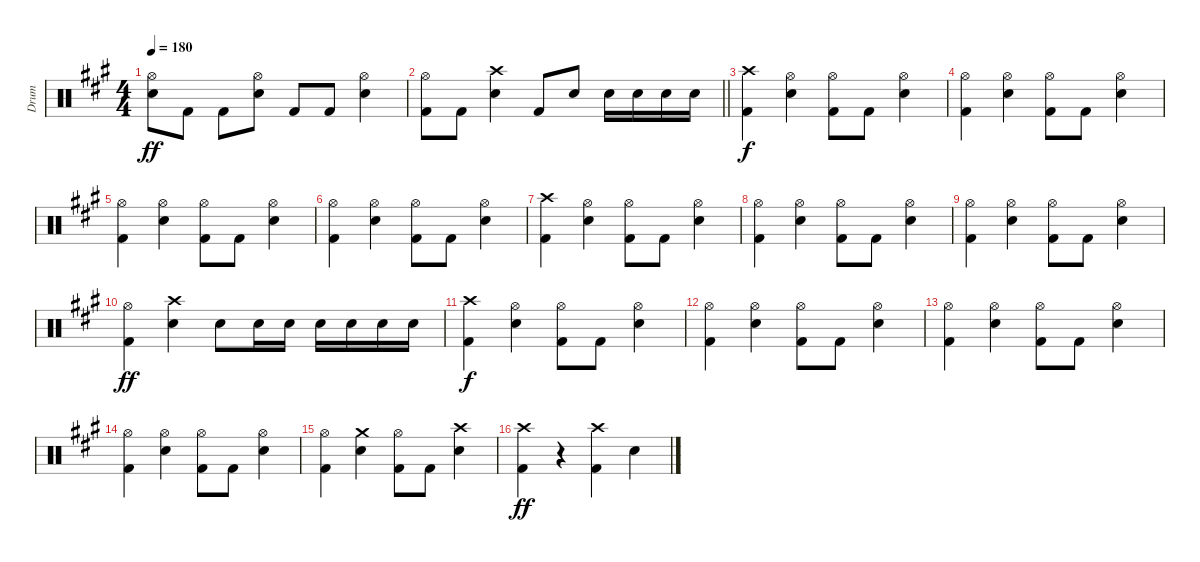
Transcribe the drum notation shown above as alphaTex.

\track ("Drum" "Drum") {instrument percussion}
\staff {score}
\articulation defaults
\ts (4 4)
\tempo 180
\clef neutral
\ks a
("Hi-Hat (open)" "Snare (hit) 2").8{dy ff} "Kick (hit) 2".8 "Kick (hit) 2".8 ("Hi-Hat (open)" "Snare (hit) 2").8 "Kick (hit) 2".8 "Kick (hit) 2".8 ("Hi-Hat (open)" "Snare (hit) 2").4 |
\barLineRight lightlight
("Hi-Hat (open)" "Kick (hit) 2").8 "Kick (hit) 2".8 ("Crash high (hit)" "Snare (hit) 2").4 "Kick (hit) 2".8 "Snare (hit) 2".8 "Snare (hit) 2".16 "Snare (hit) 2".16 "Snare (hit) 2".16 "Snare (hit) 2".16 |
("Crash high (hit)" "Kick (hit) 2").4{dy f} ("Hi-Hat (open)" "Snare (hit) 2").4 ("Hi-Hat (open)" "Kick (hit) 2").8 "Kick (hit) 2".8 ("Hi-Hat (open)" "Snare (hit) 2").4 |
("Hi-Hat (open)" "Kick (hit) 2").4 ("Hi-Hat (open)" "Snare (hit) 2").4 ("Hi-Hat (open)" "Kick (hit) 2").8 "Kick (hit) 2".8 ("Hi-Hat (open)" "Snare (hit) 2").4 |
("Hi-Hat (open)" "Kick (hit) 2").4 ("Hi-Hat (open)" "Snare (hit) 2").4 ("Hi-Hat (open)" "Kick (hit) 2").8 "Kick (hit) 2".8 ("Hi-Hat (open)" "Snare (hit) 2").4 |
("Hi-Hat (open)" "Kick (hit) 2").4 ("Hi-Hat (open)" "Snare (hit) 2").4 ("Hi-Hat (open)" "Kick (hit) 2").8 "Kick (hit) 2".8 ("Hi-Hat (open)" "Snare (hit) 2").4 |
("Crash high (hit)" "Kick (hit) 2").4 ("Hi-Hat (open)" "Snare (hit) 2").4 ("Hi-Hat (open)" "Kick (hit) 2").8 "Kick (hit) 2".8 ("Hi-Hat (open)" "Snare (hit) 2").4 |
("Hi-Hat (open)" "Kick (hit) 2").4 ("Hi-Hat (open)" "Snare (hit) 2").4 ("Hi-Hat (open)" "Kick (hit) 2").8 "Kick (hit) 2".8 ("Hi-Hat (open)" "Snare (hit) 2").4 |
("Hi-Hat (open)" "Kick (hit) 2").4 ("Hi-Hat (open)" "Snare (hit) 2").4 ("Hi-Hat (open)" "Kick (hit) 2").8 "Kick (hit) 2".8 ("Hi-Hat (open)" "Snare (hit) 2").4 |
("Hi-Hat (open)" "Kick (hit) 2").4{dy ff} ("Crash high (hit)" "Snare (hit) 2").4 "Snare (hit) 2".8 "Snare (hit) 2".16 "Snare (hit) 2".16 "Snare (hit) 2".16 "Snare (hit) 2".16 "Snare (hit) 2".16 "Snare (hit) 2".16 |
("Crash high (hit)" "Kick (hit) 2").4{dy f} ("Hi-Hat (open)" "Snare (hit) 2").4 ("Hi-Hat (open)" "Kick (hit) 2").8 "Kick (hit) 2".8 ("Hi-Hat (open)" "Snare (hit) 2").4 |
("Hi-Hat (open)" "Kick (hit) 2").4 ("Hi-Hat (open)" "Snare (hit) 2").4 ("Hi-Hat (open)" "Kick (hit) 2").8 "Kick (hit) 2".8 ("Hi-Hat (open)" "Snare (hit) 2").4 |
("Hi-Hat (open)" "Kick (hit) 2").4 ("Hi-Hat (open)" "Snare (hit) 2").4 ("Hi-Hat (open)" "Kick (hit) 2").8 "Kick (hit) 2".8 ("Hi-Hat (open)" "Snare (hit) 2").4 |
("Hi-Hat (open)" "Kick (hit) 2").4 ("Hi-Hat (open)" "Snare (hit) 2").4 ("Hi-Hat (open)" "Kick (hit) 2").8 "Kick (hit) 2".8 ("Hi-Hat (open)" "Snare (hit) 2").4 |
("Hi-Hat (open)" "Kick (hit) 2").4 ("Crash medium (hit)" "Snare (hit) 2").4 ("Hi-Hat (open)" "Kick (hit) 2").8 "Kick (hit) 2".8 ("Crash high (hit)" "Snare (hit) 2").4 |
("Crash high (hit)" "Kick (hit) 2").4{dy ff} r.4 ("Crash high (hit)" "Kick (hit) 2").4 "Snare (hit) 2".4
